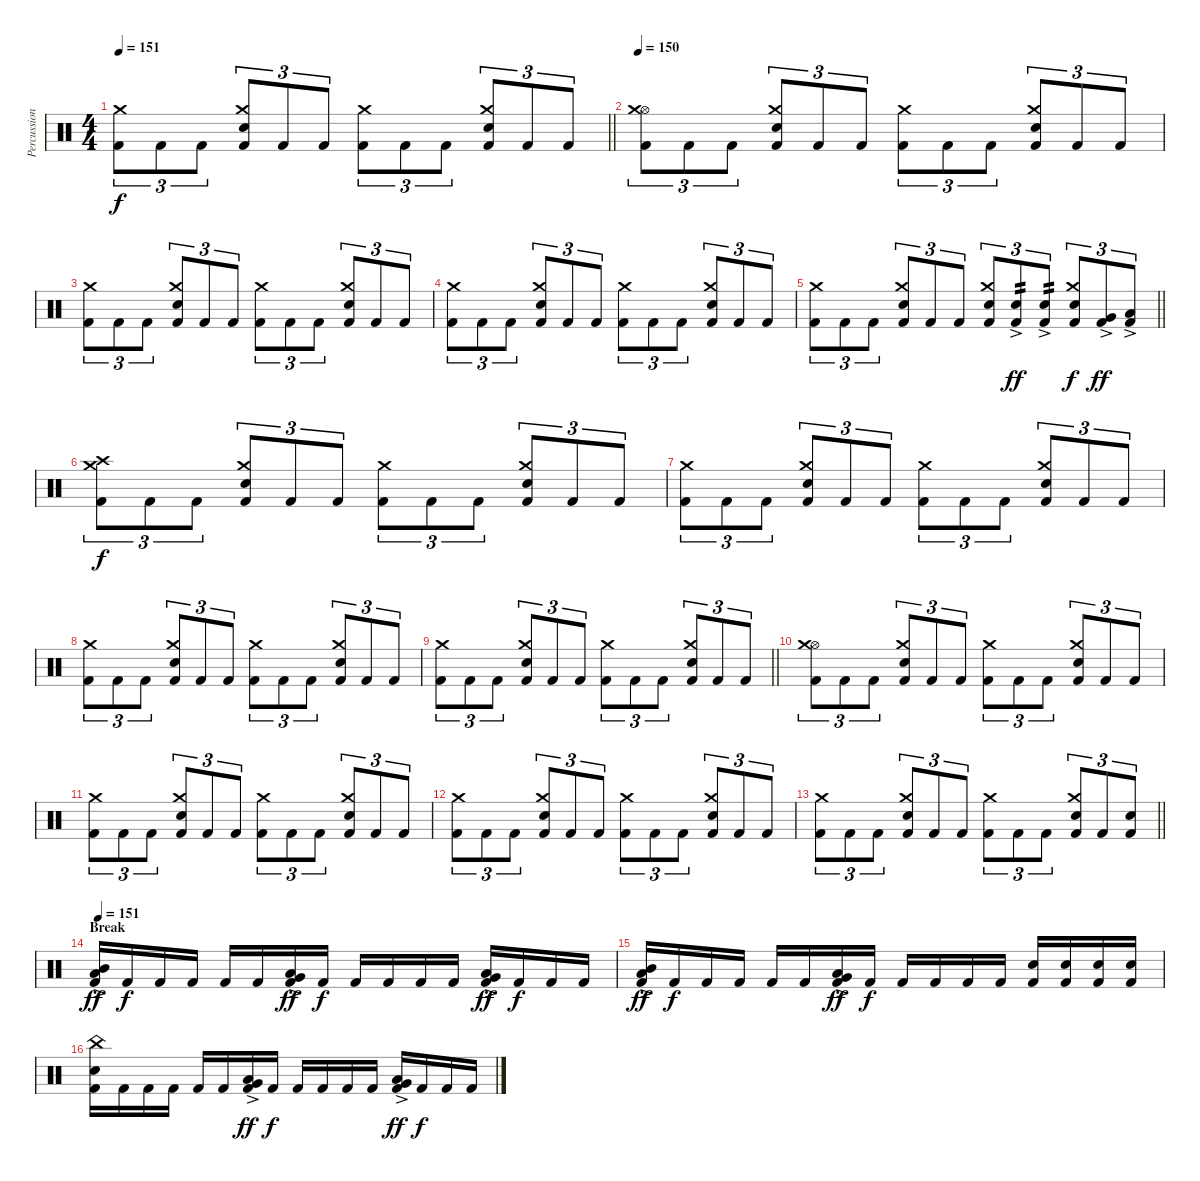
\track ("Percussion" "Percussion") {instrument percussion}
\staff {score}
\articulation defaults
\ts (4 4)
\tempo 151
\clef neutral
\barLineRight lightlight
\ks c
("Kick (hit) 2" "Crash medium (hit)").8{tu (3 2) dy f} "Kick (hit) 2".8{tu (3 2)} "Kick (hit) 2".8{tu (3 2)} ("Kick (hit) 2" "Snare (hit) 2" "Crash medium (hit)").8{tu (3 2)} "Kick (hit) 2".8{tu (3 2)} "Kick (hit) 2".8{tu (3 2)} ("Kick (hit) 2" "Crash medium (hit)").8{tu (3 2)} "Kick (hit) 2".8{tu (3 2)} "Kick (hit) 2".8{tu (3 2)} ("Kick (hit) 2" "Snare (hit) 2" "Crash medium (hit)").8{tu (3 2)} "Kick (hit) 2".8{tu (3 2)} "Kick (hit) 2".8{tu (3 2)} |
\section ("" "")
\tempo 150
("Kick (hit) 2" "Hi-Hat (open)" "Crash medium (hit)").8{tu (3 2)} "Kick (hit) 2".8{tu (3 2)} "Kick (hit) 2".8{tu (3 2)} ("Kick (hit) 2" "Snare (hit) 2" "Crash medium (hit)").8{tu (3 2)} "Kick (hit) 2".8{tu (3 2)} "Kick (hit) 2".8{tu (3 2)} ("Kick (hit) 2" "Crash medium (hit)").8{tu (3 2)} "Kick (hit) 2".8{tu (3 2)} "Kick (hit) 2".8{tu (3 2)} ("Kick (hit) 2" "Snare (hit) 2" "Crash medium (hit)").8{tu (3 2)} "Kick (hit) 2".8{tu (3 2)} "Kick (hit) 2".8{tu (3 2)} |
("Kick (hit) 2" "Crash medium (hit)").8{tu (3 2)} "Kick (hit) 2".8{tu (3 2)} "Kick (hit) 2".8{tu (3 2)} ("Kick (hit) 2" "Snare (hit) 2" "Crash medium (hit)").8{tu (3 2)} "Kick (hit) 2".8{tu (3 2)} "Kick (hit) 2".8{tu (3 2)} ("Kick (hit) 2" "Crash medium (hit)").8{tu (3 2)} "Kick (hit) 2".8{tu (3 2)} "Kick (hit) 2".8{tu (3 2)} ("Kick (hit) 2" "Snare (hit) 2" "Crash medium (hit)").8{tu (3 2)} "Kick (hit) 2".8{tu (3 2)} "Kick (hit) 2".8{tu (3 2)} |
("Kick (hit) 2" "Crash medium (hit)").8{tu (3 2)} "Kick (hit) 2".8{tu (3 2)} "Kick (hit) 2".8{tu (3 2)} ("Kick (hit) 2" "Snare (hit) 2" "Crash medium (hit)").8{tu (3 2)} "Kick (hit) 2".8{tu (3 2)} "Kick (hit) 2".8{tu (3 2)} ("Kick (hit) 2" "Crash medium (hit)").8{tu (3 2)} "Kick (hit) 2".8{tu (3 2)} "Kick (hit) 2".8{tu (3 2)} ("Kick (hit) 2" "Snare (hit) 2" "Crash medium (hit)").8{tu (3 2)} "Kick (hit) 2".8{tu (3 2)} "Kick (hit) 2".8{tu (3 2)} |
\barLineRight lightlight
("Kick (hit) 2" "Crash medium (hit)").8{tu (3 2)} "Kick (hit) 2".8{tu (3 2)} "Kick (hit) 2".8{tu (3 2)} ("Kick (hit) 2" "Snare (hit) 2" "Crash medium (hit)").8{tu (3 2)} "Kick (hit) 2".8{tu (3 2)} "Kick (hit) 2".8{tu (3 2)} ("Kick (hit) 2" "Snare (hit) 2" "Crash medium (hit)").8{tu (3 2)} ("Kick (hit) 2" "Snare (hit) 2"{ac}).8{tu (3 2) tp 2 dy ff} ("Kick (hit) 2" "Snare (hit) 2"{ac}).8{tu (3 2) tp 2} ("Kick (hit) 2" "Snare (hit) 2" "Crash medium (hit)").8{tu (3 2) dy f} ("Kick (hit) 2" "Very Low Tom (hit)"{ac}).8{tu (3 2) dy ff} ("Kick (hit) 2" "Low Floor Tom (hit)"{ac}).8{tu (3 2)} |
\section ("" "")
("Kick (hit) 2" "Crash high (hit)" "Crash medium (hit)").8{tu (3 2) dy f} "Kick (hit) 2".8{tu (3 2)} "Kick (hit) 2".8{tu (3 2)} ("Kick (hit) 2" "Snare (hit) 2" "Crash medium (hit)").8{tu (3 2)} "Kick (hit) 2".8{tu (3 2)} "Kick (hit) 2".8{tu (3 2)} ("Kick (hit) 2" "Crash medium (hit)").8{tu (3 2)} "Kick (hit) 2".8{tu (3 2)} "Kick (hit) 2".8{tu (3 2)} ("Kick (hit) 2" "Snare (hit) 2" "Crash medium (hit)").8{tu (3 2)} "Kick (hit) 2".8{tu (3 2)} "Kick (hit) 2".8{tu (3 2)} |
("Kick (hit) 2" "Crash medium (hit)").8{tu (3 2)} "Kick (hit) 2".8{tu (3 2)} "Kick (hit) 2".8{tu (3 2)} ("Kick (hit) 2" "Snare (hit) 2" "Crash medium (hit)").8{tu (3 2)} "Kick (hit) 2".8{tu (3 2)} "Kick (hit) 2".8{tu (3 2)} ("Kick (hit) 2" "Crash medium (hit)").8{tu (3 2)} "Kick (hit) 2".8{tu (3 2)} "Kick (hit) 2".8{tu (3 2)} ("Kick (hit) 2" "Snare (hit) 2" "Crash medium (hit)").8{tu (3 2)} "Kick (hit) 2".8{tu (3 2)} "Kick (hit) 2".8{tu (3 2)} |
("Kick (hit) 2" "Crash medium (hit)").8{tu (3 2)} "Kick (hit) 2".8{tu (3 2)} "Kick (hit) 2".8{tu (3 2)} ("Kick (hit) 2" "Snare (hit) 2" "Crash medium (hit)").8{tu (3 2)} "Kick (hit) 2".8{tu (3 2)} "Kick (hit) 2".8{tu (3 2)} ("Kick (hit) 2" "Crash medium (hit)").8{tu (3 2)} "Kick (hit) 2".8{tu (3 2)} "Kick (hit) 2".8{tu (3 2)} ("Kick (hit) 2" "Snare (hit) 2" "Crash medium (hit)").8{tu (3 2)} "Kick (hit) 2".8{tu (3 2)} "Kick (hit) 2".8{tu (3 2)} |
\barLineRight lightlight
("Kick (hit) 2" "Crash medium (hit)").8{tu (3 2)} "Kick (hit) 2".8{tu (3 2)} "Kick (hit) 2".8{tu (3 2)} ("Kick (hit) 2" "Snare (hit) 2" "Crash medium (hit)").8{tu (3 2)} "Kick (hit) 2".8{tu (3 2)} "Kick (hit) 2".8{tu (3 2)} ("Kick (hit) 2" "Crash medium (hit)").8{tu (3 2)} "Kick (hit) 2".8{tu (3 2)} "Kick (hit) 2".8{tu (3 2)} ("Kick (hit) 2" "Snare (hit) 2" "Crash medium (hit)").8{tu (3 2)} "Kick (hit) 2".8{tu (3 2)} "Kick (hit) 2".8{tu (3 2)} |
\section ("" "")
("Kick (hit) 2" "Hi-Hat (open)" "Crash medium (hit)").8{tu (3 2)} "Kick (hit) 2".8{tu (3 2)} "Kick (hit) 2".8{tu (3 2)} ("Kick (hit) 2" "Snare (hit) 2" "Crash medium (hit)").8{tu (3 2)} "Kick (hit) 2".8{tu (3 2)} "Kick (hit) 2".8{tu (3 2)} ("Kick (hit) 2" "Crash medium (hit)").8{tu (3 2)} "Kick (hit) 2".8{tu (3 2)} "Kick (hit) 2".8{tu (3 2)} ("Kick (hit) 2" "Snare (hit) 2" "Crash medium (hit)").8{tu (3 2)} "Kick (hit) 2".8{tu (3 2)} "Kick (hit) 2".8{tu (3 2)} |
("Kick (hit) 2" "Crash medium (hit)").8{tu (3 2)} "Kick (hit) 2".8{tu (3 2)} "Kick (hit) 2".8{tu (3 2)} ("Kick (hit) 2" "Snare (hit) 2" "Crash medium (hit)").8{tu (3 2)} "Kick (hit) 2".8{tu (3 2)} "Kick (hit) 2".8{tu (3 2)} ("Kick (hit) 2" "Crash medium (hit)").8{tu (3 2)} "Kick (hit) 2".8{tu (3 2)} "Kick (hit) 2".8{tu (3 2)} ("Kick (hit) 2" "Snare (hit) 2" "Crash medium (hit)").8{tu (3 2)} "Kick (hit) 2".8{tu (3 2)} "Kick (hit) 2".8{tu (3 2)} |
("Kick (hit) 2" "Crash medium (hit)").8{tu (3 2)} "Kick (hit) 2".8{tu (3 2)} "Kick (hit) 2".8{tu (3 2)} ("Kick (hit) 2" "Snare (hit) 2" "Crash medium (hit)").8{tu (3 2)} "Kick (hit) 2".8{tu (3 2)} "Kick (hit) 2".8{tu (3 2)} ("Kick (hit) 2" "Crash medium (hit)").8{tu (3 2)} "Kick (hit) 2".8{tu (3 2)} "Kick (hit) 2".8{tu (3 2)} ("Kick (hit) 2" "Snare (hit) 2" "Crash medium (hit)").8{tu (3 2)} "Kick (hit) 2".8{tu (3 2)} "Kick (hit) 2".8{tu (3 2)} |
\barLineRight lightlight
("Kick (hit) 2" "Crash medium (hit)").8{tu (3 2)} "Kick (hit) 2".8{tu (3 2)} "Kick (hit) 2".8{tu (3 2)} ("Kick (hit) 2" "Snare (hit) 2" "Crash medium (hit)").8{tu (3 2)} "Kick (hit) 2".8{tu (3 2)} "Kick (hit) 2".8{tu (3 2)} ("Kick (hit) 2" "Crash medium (hit)").8{tu (3 2)} "Kick (hit) 2".8{tu (3 2)} "Kick (hit) 2".8{tu (3 2)} ("Kick (hit) 2" "Snare (hit) 2" "Crash medium (hit)").8{tu (3 2)} "Kick (hit) 2".8{tu (3 2)} ("Kick (hit) 2" "Snare (hit) 2").8{tu (3 2)} |
\section ("" "Break")
\tempo 151
("Kick (hit) 2" "Low Tom (hit)"{ac} "Mid Tom (hit)"{ac}).16{dy ff} "Kick (hit) 2".16{dy f} "Kick (hit) 2".16 "Kick (hit) 2".16 "Kick (hit) 2".16 "Kick (hit) 2".16 ("Kick (hit) 2" "Very Low Tom (hit)"{ac} "Low Tom (hit)"{ac}).16{dy ff} "Kick (hit) 2".16{dy f} "Kick (hit) 2".16 "Kick (hit) 2".16 "Kick (hit) 2".16 "Kick (hit) 2".16 ("Kick (hit) 2" "Low Floor Tom (hit)"{ac} "Very Low Tom (hit)"{ac}).16{dy ff} "Kick (hit) 2".16{dy f} "Kick (hit) 2".16 "Kick (hit) 2".16 |
("Kick (hit) 2" "Low Tom (hit)"{ac} "Mid Tom (hit)"{ac}).16{dy ff} "Kick (hit) 2".16{dy f} "Kick (hit) 2".16 "Kick (hit) 2".16 "Kick (hit) 2".16 "Kick (hit) 2".16 ("Kick (hit) 2" "Very Low Tom (hit)"{ac} "Low Tom (hit)"{ac}).16{dy ff} "Kick (hit) 2".16{dy f} "Kick (hit) 2".16 "Kick (hit) 2".16 "Kick (hit) 2".16 "Kick (hit) 2".16 ("Kick (hit) 2" "Snare (hit) 2").16 ("Kick (hit) 2" "Snare (hit) 2").16 ("Kick (hit) 2" "Snare (hit) 2").16 ("Kick (hit) 2" "Snare (hit) 2").16 |
("Kick (hit) 2" "Snare (hit) 2" "China (hit)").16 "Kick (hit) 2".16 "Kick (hit) 2".16 "Kick (hit) 2".16 "Kick (hit) 2".16 "Kick (hit) 2".16 ("Kick (hit) 2" "Very Low Tom (hit)"{ac} "Low Tom (hit)"{ac}).16{dy ff} "Kick (hit) 2".16{dy f} "Kick (hit) 2".16 "Kick (hit) 2".16 "Kick (hit) 2".16 "Kick (hit) 2".16 ("Kick (hit) 2" "Low Floor Tom (hit)"{ac} "Very Low Tom (hit)"{ac}).16{dy ff} "Kick (hit) 2".16{dy f} "Kick (hit) 2".16 "Kick (hit) 2".16
